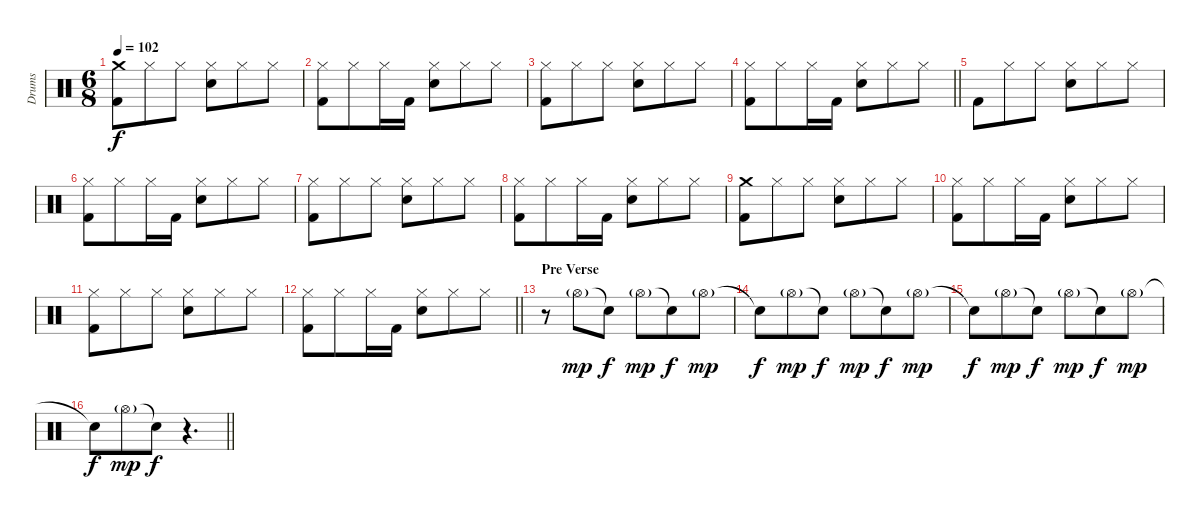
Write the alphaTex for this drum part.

\track ("Drums" "Drums") {instrument percussion}
\staff {score}
\articulation defaults
\ts (6 8)
\tempo 102
\clef neutral
\ks aminor
("Crash medium (hit)" "Kick (hit) 2").8{dy f} "Hi-Hat (closed)".8 "Hi-Hat (closed)".8 ("Hi-Hat (closed)" "Snare (hit) 2").8 "Hi-Hat (closed)".8 "Hi-Hat (closed)".8 |
("Hi-Hat (closed)" "Kick (hit) 2").8 "Hi-Hat (closed)".8 "Hi-Hat (closed)".16 "Kick (hit) 2".16 ("Hi-Hat (closed)" "Snare (hit) 2").8 "Hi-Hat (closed)".8 "Hi-Hat (closed)".8 |
("Hi-Hat (closed)" "Kick (hit) 2").8 "Hi-Hat (closed)".8 "Hi-Hat (closed)".8 ("Hi-Hat (closed)" "Snare (hit) 2").8 "Hi-Hat (closed)".8 "Hi-Hat (closed)".8 |
\barLineRight lightlight
("Hi-Hat (closed)" "Kick (hit) 2").8 "Hi-Hat (closed)".8 "Hi-Hat (closed)".16 "Kick (hit) 2".16 ("Hi-Hat (closed)" "Snare (hit) 2").8 "Hi-Hat (closed)".8 "Hi-Hat (closed)".8 |
"Kick (hit) 2".8 "Hi-Hat (closed)".8 "Hi-Hat (closed)".8 ("Hi-Hat (closed)" "Snare (hit) 2").8 "Hi-Hat (closed)".8 "Hi-Hat (closed)".8 |
("Hi-Hat (closed)" "Kick (hit) 2").8 "Hi-Hat (closed)".8 "Hi-Hat (closed)".16 "Kick (hit) 2".16 ("Hi-Hat (closed)" "Snare (hit) 2").8 "Hi-Hat (closed)".8 "Hi-Hat (closed)".8 |
("Hi-Hat (closed)" "Kick (hit) 2").8 "Hi-Hat (closed)".8 "Hi-Hat (closed)".8 ("Hi-Hat (closed)" "Snare (hit) 2").8 "Hi-Hat (closed)".8 "Hi-Hat (closed)".8 |
("Hi-Hat (closed)" "Kick (hit) 2").8 "Hi-Hat (closed)".8 "Hi-Hat (closed)".16 "Kick (hit) 2".16 ("Hi-Hat (closed)" "Snare (hit) 2").8 "Hi-Hat (closed)".8 "Hi-Hat (closed)".8 |
("Crash medium (hit)" "Kick (hit) 2").8 "Hi-Hat (closed)".8 "Hi-Hat (closed)".8 ("Hi-Hat (closed)" "Snare (hit) 2").8 "Hi-Hat (closed)".8 "Hi-Hat (closed)".8 |
("Hi-Hat (closed)" "Kick (hit) 2").8 "Hi-Hat (closed)".8 "Hi-Hat (closed)".16 "Kick (hit) 2".16 ("Hi-Hat (closed)" "Snare (hit) 2").8 "Hi-Hat (closed)".8 "Hi-Hat (closed)".8 |
("Hi-Hat (closed)" "Kick (hit) 2").8 "Hi-Hat (closed)".8 "Hi-Hat (closed)".8 ("Hi-Hat (closed)" "Snare (hit) 2").8 "Hi-Hat (closed)".8 "Hi-Hat (closed)".8 |
\barLineRight lightlight
("Hi-Hat (closed)" "Kick (hit) 2").8 "Hi-Hat (closed)".8 "Hi-Hat (closed)".16 "Kick (hit) 2".16 ("Hi-Hat (closed)" "Snare (hit) 2").8 "Hi-Hat (closed)".8 "Hi-Hat (closed)".8 |
\section ("" "Pre Verse")
r.8 "Hi-Hat (open)"{g}.8{dy mp} "Snare (hit)"{t}.8{dy f} "Hi-Hat (open)"{g}.8{dy mp} "Snare (hit)"{t}.8{dy f} "Hi-Hat (open)"{g}.8{dy mp} |
"Snare (hit)"{t}.8{dy f} "Hi-Hat (open)"{g}.8{dy mp} "Snare (hit)"{t}.8{dy f} "Hi-Hat (open)"{g}.8{dy mp} "Snare (hit)"{t}.8{dy f} "Hi-Hat (open)"{g}.8{dy mp} |
"Snare (hit)"{t}.8{dy f} "Hi-Hat (open)"{g}.8{dy mp} "Snare (hit)"{t}.8{dy f} "Hi-Hat (open)"{g}.8{dy mp} "Snare (hit)"{t}.8{dy f} "Hi-Hat (open)"{g}.8{dy mp} |
\barLineRight lightlight "Snare (hit)"{t}.8{dy f} "Hi-Hat (open)"{g}.8{dy mp} "Snare (hit)"{t}.8{dy f}
r.4{d}
